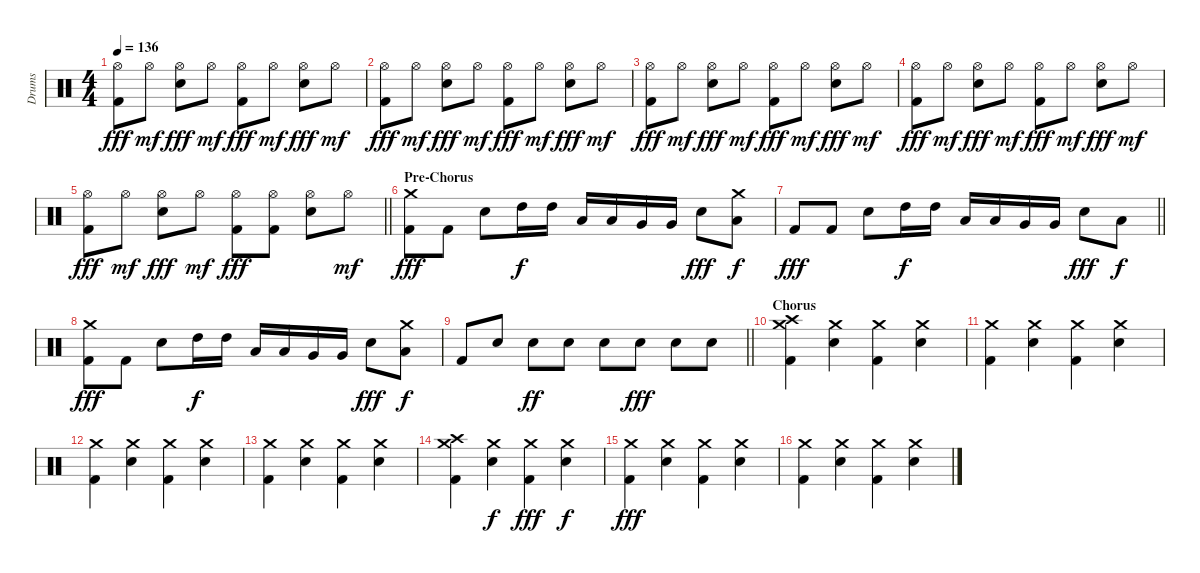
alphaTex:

\track ("Drums" "Drums") {instrument percussion}
\staff {score}
\articulation defaults
\ts (4 4)
\tempo 136
\clef neutral
\ks c
("Hi-Hat (open)" "Kick (hit) 2").8{dy fff} "Hi-Hat (open)".8{dy mf} ("Hi-Hat (open)" "Electric Snare (hit)").8{dy fff} "Hi-Hat (open)".8{dy mf} ("Hi-Hat (open)" "Kick (hit) 2").8{dy fff} "Hi-Hat (open)".8{dy mf} ("Hi-Hat (open)" "Electric Snare (hit)").8{dy fff} "Hi-Hat (open)".8{dy mf} |
("Hi-Hat (open)" "Kick (hit) 2").8{dy fff} "Hi-Hat (open)".8{dy mf} ("Hi-Hat (open)" "Electric Snare (hit)").8{dy fff} "Hi-Hat (open)".8{dy mf} ("Hi-Hat (open)" "Kick (hit) 2").8{dy fff} "Hi-Hat (open)".8{dy mf} ("Hi-Hat (open)" "Electric Snare (hit)").8{dy fff} "Hi-Hat (open)".8{dy mf} |
("Hi-Hat (open)" "Kick (hit) 2").8{dy fff} "Hi-Hat (open)".8{dy mf} ("Hi-Hat (open)" "Electric Snare (hit)").8{dy fff} "Hi-Hat (open)".8{dy mf} ("Hi-Hat (open)" "Kick (hit) 2").8{dy fff} "Hi-Hat (open)".8{dy mf} ("Hi-Hat (open)" "Electric Snare (hit)").8{dy fff} "Hi-Hat (open)".8{dy mf} |
("Hi-Hat (open)" "Kick (hit) 2").8{dy fff} "Hi-Hat (open)".8{dy mf} ("Hi-Hat (open)" "Electric Snare (hit)").8{dy fff} "Hi-Hat (open)".8{dy mf} ("Hi-Hat (open)" "Kick (hit) 2").8{dy fff} "Hi-Hat (open)".8{dy mf} ("Hi-Hat (open)" "Electric Snare (hit)").8{dy fff} "Hi-Hat (open)".8{dy mf} |
\barLineRight lightlight
("Hi-Hat (open)" "Kick (hit) 2").8{dy fff} "Hi-Hat (open)".8{dy mf} ("Hi-Hat (open)" "Electric Snare (hit)").8{dy fff} "Hi-Hat (open)".8{dy mf} ("Hi-Hat (open)" "Kick (hit) 2").8{dy fff} ("Hi-Hat (open)" "Kick (hit) 2").8 ("Hi-Hat (open)" "Electric Snare (hit)").8 "Hi-Hat (open)".8{dy mf} |
\section ("" "Pre-Chorus")
("Crash medium (hit)" "Kick (hit) 2").8{dy fff} "Kick (hit) 2".8 "Electric Snare (hit)".8 "High Tom (hit)".16{dy f} "High Tom (hit)".16 "Low Tom (hit)".16 "Low Tom (hit)".16 "Very Low Tom (hit)".16 "Very Low Tom (hit)".16 "Electric Snare (hit)".8{dy fff} ("Crash medium (hit)" "Low Tom (hit)").8{dy f} |
\barLineRight lightlight "Kick (hit) 2".8{dy fff} "Kick (hit) 2".8 "Electric Snare (hit)".8 "High Tom (hit)".16{dy f} "High Tom (hit)".16 "Low Tom (hit)".16 "Low Tom (hit)".16 "Very Low Tom (hit)".16 "Very Low Tom (hit)".16 "Electric Snare (hit)".8{dy fff} "Low Tom (hit)".8{dy f}
|
("Crash medium (hit)" "Kick (hit) 2").8{dy fff} "Kick (hit) 2".8 "Electric Snare (hit)".8 "High Tom (hit)".16{dy f} "High Tom (hit)".16 "Low Tom (hit)".16 "Low Tom (hit)".16 "Very Low Tom (hit)".16 "Very Low Tom (hit)".16 "Electric Snare (hit)".8{dy fff} ("Crash medium (hit)" "Low Tom (hit)").8{dy f} |
\barLineRight lightlight "Kick (hit) 2".8 "Electric Snare (hit)".8 "Electric Snare (hit)".8{dy ff} "Electric Snare (hit)".8 "Electric Snare (hit)".8 "Electric Snare (hit)".8{dy fff} "Electric Snare (hit)".8 "Electric Snare (hit)".8
|
\section ("" "Chorus")
("Crash medium (hit)" "Crash high (hit)" "Kick (hit) 2").4 ("Crash medium (hit)" "Electric Snare (hit)").4 ("Crash medium (hit)" "Kick (hit) 2").4 ("Crash medium (hit)" "Electric Snare (hit)").4 |
("Crash medium (hit)" "Kick (hit) 2").4 ("Crash medium (hit)" "Electric Snare (hit)").4 ("Crash medium (hit)" "Kick (hit) 2").4 ("Crash medium (hit)" "Electric Snare (hit)").4 |
("Crash medium (hit)" "Kick (hit) 2").4 ("Crash medium (hit)" "Electric Snare (hit)").4 ("Crash medium (hit)" "Kick (hit) 2").4 ("Crash medium (hit)" "Electric Snare (hit)").4 |
("Crash medium (hit)" "Kick (hit) 2").4 ("Crash medium (hit)" "Electric Snare (hit)").4 ("Crash medium (hit)" "Kick (hit) 2").4 ("Crash medium (hit)" "Electric Snare (hit)").4 |
("Crash medium (hit)" "Crash high (hit)" "Kick (hit) 2").4 ("Crash medium (hit)" "Electric Snare (hit)").4{dy f} ("Crash medium (hit)" "Kick (hit) 2").4{dy fff} ("Crash medium (hit)" "Electric Snare (hit)").4{dy f} |
("Crash medium (hit)" "Kick (hit) 2").4{dy fff} ("Crash medium (hit)" "Electric Snare (hit)").4 ("Crash medium (hit)" "Kick (hit) 2").4 ("Crash medium (hit)" "Electric Snare (hit)").4 |
("Crash medium (hit)" "Kick (hit) 2").4 ("Crash medium (hit)" "Electric Snare (hit)").4 ("Crash medium (hit)" "Kick (hit) 2").4 ("Crash medium (hit)" "Electric Snare (hit)").4
